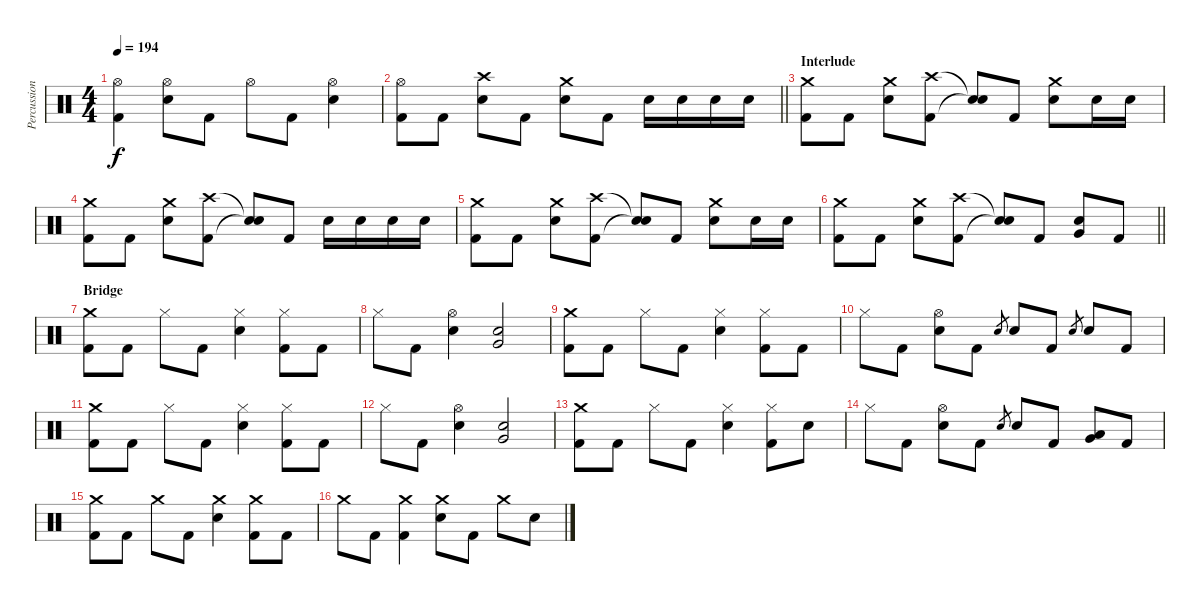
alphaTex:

\track ("Percussions" "Percussion") {instrument percussion}
\staff {score}
\articulation defaults
\ts (4 4)
\tempo 194
\clef neutral
\ks c
("Hi-Hat (open)" "Kick (hit) 2").4{dy f} ("Hi-Hat (open)" "Electric Snare (hit)").8 "Kick (hit) 2".8 "Hi-Hat (open)".8 "Kick (hit) 2".8 ("Hi-Hat (open)" "Electric Snare (hit)").4 |
\barLineRight lightlight
("Hi-Hat (open)" "Kick (hit) 2").8 "Kick (hit) 2".8 ("Crash high (hit)" "Electric Snare (hit)").8 "Kick (hit) 2".8 ("Crash medium (hit)" "Electric Snare (hit)").8 "Kick (hit) 2".8 "Electric Snare (hit)".16 "Electric Snare (hit)".16 "Electric Snare (hit)".16 "Electric Snare (hit)".16 |
\section ("" "Interlude")
("Crash medium (hit)" "Kick (hit) 2").8 "Kick (hit) 2".8 ("Crash medium (hit)" "Electric Snare (hit)").8 ("Crash high (hit)" "Kick (hit) 2").8 ("Snare (hit)"{t} "Snare (hit)"{t}).8 "Kick (hit) 2".8 ("Crash medium (hit)" "Electric Snare (hit)").8 "Electric Snare (hit)".16 "Electric Snare (hit)".16 |
("Crash medium (hit)" "Kick (hit) 2").8 "Kick (hit) 2".8 ("Crash medium (hit)" "Electric Snare (hit)").8 ("Crash high (hit)" "Kick (hit) 2").8 ("Snare (hit)"{t} "Snare (hit)"{t}).8 "Kick (hit) 2".8 "Electric Snare (hit)".16 "Electric Snare (hit)".16 "Electric Snare (hit)".16 "Electric Snare (hit)".16 |
("Crash medium (hit)" "Kick (hit) 2").8 "Kick (hit) 2".8 ("Crash medium (hit)" "Electric Snare (hit)").8 ("Crash high (hit)" "Kick (hit) 2").8 ("Snare (hit)"{t} "Snare (hit)"{t}).8 "Kick (hit) 2".8 ("Crash medium (hit)" "Electric Snare (hit)").8 "Electric Snare (hit)".16 "Electric Snare (hit)".16 |
\barLineRight lightlight
("Crash medium (hit)" "Kick (hit) 2").8 "Kick (hit) 2".8 ("Crash medium (hit)" "Electric Snare (hit)").8 ("Crash high (hit)" "Kick (hit) 2").8 ("Snare (hit)"{t} "Snare (hit)"{t}).8 "Kick (hit) 2".8 ("Very Low Tom (hit)" "Electric Snare (hit)").8 "Kick (hit) 2".8 |
\section ("" "Bridge")
("Crash medium (hit)" "Kick (hit) 2").8 "Kick (hit) 2".8 "Hi-Hat (closed)".8 "Kick (hit) 2".8 ("Hi-Hat (closed)" "Electric Snare (hit)").4 ("Hi-Hat (closed)" "Kick (hit) 2").8 "Kick (hit) 2".8 |
"Hi-Hat (closed)".8 "Kick (hit) 2".8 ("Hi-Hat (open)" "Electric Snare (hit)").4 ("Very Low Tom (hit)" "Electric Snare (hit)").2 |
("Crash medium (hit)" "Kick (hit) 2").8 "Kick (hit) 2".8 "Hi-Hat (closed)".8 "Kick (hit) 2".8 ("Hi-Hat (closed)" "Electric Snare (hit)").4 ("Hi-Hat (closed)" "Kick (hit) 2").8 "Kick (hit) 2".8 |
"Hi-Hat (closed)".8 "Kick (hit) 2".8 ("Hi-Hat (open)" "Electric Snare (hit)").8 "Kick (hit) 2".8 "Electric Snare (hit)".8{gr} "Electric Snare (hit)".8 "Kick (hit) 2".8 "Electric Snare (hit)".8{gr} "Electric Snare (hit)".8 "Kick (hit) 2".8 |
("Crash medium (hit)" "Kick (hit) 2").8 "Kick (hit) 2".8 "Hi-Hat (closed)".8 "Kick (hit) 2".8 ("Hi-Hat (closed)" "Electric Snare (hit)").4 ("Hi-Hat (closed)" "Kick (hit) 2").8 "Kick (hit) 2".8 |
"Hi-Hat (closed)".8 "Kick (hit) 2".8 ("Hi-Hat (open)" "Electric Snare (hit)").4 ("Very Low Tom (hit)" "Electric Snare (hit)").2 |
("Crash medium (hit)" "Kick (hit) 2").8 "Kick (hit) 2".8 "Hi-Hat (closed)".8 "Kick (hit) 2".8 ("Hi-Hat (closed)" "Electric Snare (hit)").4 ("Hi-Hat (closed)" "Kick (hit) 2").8 "Electric Snare (hit)".8 |
"Hi-Hat (closed)".8 "Kick (hit) 2".8 ("Hi-Hat (open)" "Electric Snare (hit)").8 "Kick (hit) 2".8 "Electric Snare (hit)".8{gr} "Electric Snare (hit)".8 "Kick (hit) 2".8 ("Very Low Tom (hit)" "Low Tom (hit)").8 "Kick (hit) 2".8 |
("Crash medium (hit)" "Kick (hit) 2").8 "Kick (hit) 2".8 "Crash medium (hit)".8 "Kick (hit) 2".8 ("Crash medium (hit)" "Electric Snare (hit)").4 ("Crash medium (hit)" "Kick (hit) 2").8 "Kick (hit) 2".8 |
"Crash medium (hit)".8 "Kick (hit) 2".8 ("Crash medium (hit)" "Kick (hit) 2").4 ("Crash medium (hit)" "Electric Snare (hit)").8 "Kick (hit) 2".8 "Crash medium (hit)".8 "Electric Snare (hit)".8
